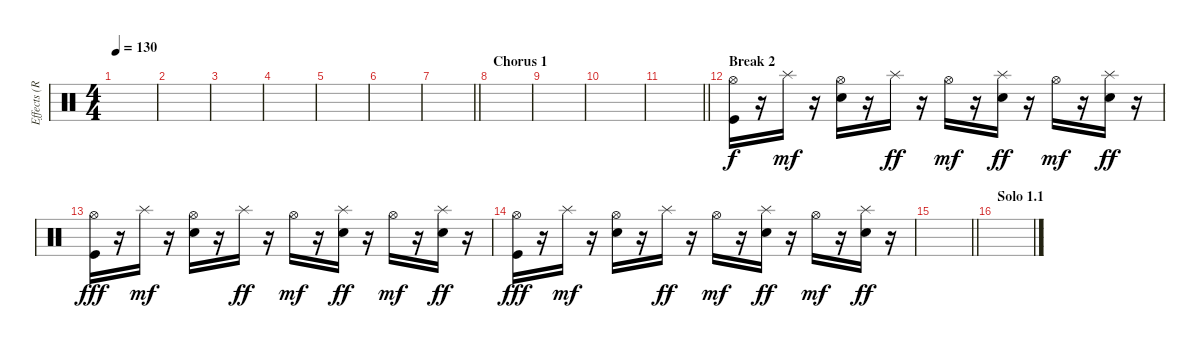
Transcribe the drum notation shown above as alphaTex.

\track ("Effects (Roy Mayorga Samples)" "Effects (R") {instrument percussion}
\staff {score}
\articulation defaults
\ts (4 4)
\tempo 130
\clef neutral
\ks c
|
|
|
|
|
|
\barLineRight lightlight
|
\section ("" "Chorus 1")
|
|
|
\barLineRight lightlight
|
\section ("" "Break 2")
("Hi-Hat (open)" "Kick (hit)").16 r.16 "Splash (hit)".16{dy mf} r.16 ("Hi-Hat (open)" "Snare (hit) 2").16 r.16 "Splash (hit)".16{dy ff} r.16 "Hi-Hat (open)".16{dy mf} r.16 ("Splash (hit)" "Snare (hit) 2").16{dy ff} r.16 "Hi-Hat (open)".16{dy mf} r.16 ("Splash (hit)" "Snare (hit) 2").16{dy ff} r.16 |
("Hi-Hat (open)" "Kick (hit)").16{dy fff} r.16 "Splash (hit)".16{dy mf} r.16 ("Hi-Hat (open)" "Snare (hit) 2").16 r.16 "Splash (hit)".16{dy ff} r.16 "Hi-Hat (open)".16{dy mf} r.16 ("Splash (hit)" "Snare (hit) 2").16{dy ff} r.16 "Hi-Hat (open)".16{dy mf} r.16 ("Splash (hit)" "Snare (hit) 2").16{dy ff} r.16 |
("Hi-Hat (open)" "Kick (hit)").16{dy fff} r.16 "Splash (hit)".16{dy mf} r.16 ("Hi-Hat (open)" "Snare (hit) 2").16 r.16 "Splash (hit)".16{dy ff} r.16 "Hi-Hat (open)".16{dy mf} r.16 ("Splash (hit)" "Snare (hit) 2").16{dy ff} r.16 "Hi-Hat (open)".16{dy mf} r.16 ("Splash (hit)" "Snare (hit) 2").16{dy ff} r.16 |
\barLineRight lightlight
|
\section ("" "Solo 1.1")
